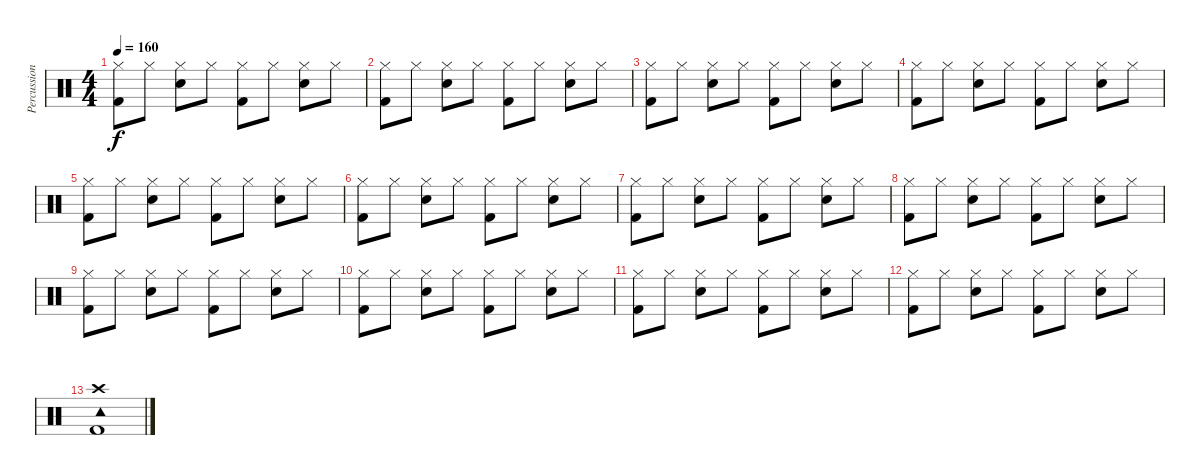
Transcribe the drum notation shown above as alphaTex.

\track ("Percussion" "Percussion") {instrument percussion}
\staff {score}
\articulation defaults
\ts (4 4)
\tempo 160
\clef neutral
\ks c
("Hi-Hat (closed)" "Kick (hit) 2").8{dy f} "Hi-Hat (closed)".8 ("Hi-Hat (closed)" "Snare (hit) 2").8 "Hi-Hat (closed)".8 ("Hi-Hat (closed)" "Kick (hit) 2").8 "Hi-Hat (closed)".8 ("Hi-Hat (closed)" "Snare (hit) 2").8 "Hi-Hat (closed)".8 |
("Hi-Hat (closed)" "Kick (hit) 2").8 "Hi-Hat (closed)".8 ("Hi-Hat (closed)" "Snare (hit) 2").8 "Hi-Hat (closed)".8 ("Hi-Hat (closed)" "Kick (hit) 2").8 "Hi-Hat (closed)".8 ("Hi-Hat (closed)" "Snare (hit) 2").8 "Hi-Hat (closed)".8 |
("Hi-Hat (closed)" "Kick (hit) 2").8 "Hi-Hat (closed)".8 ("Hi-Hat (closed)" "Snare (hit) 2").8 "Hi-Hat (closed)".8 ("Hi-Hat (closed)" "Kick (hit) 2").8 "Hi-Hat (closed)".8 ("Hi-Hat (closed)" "Snare (hit) 2").8 "Hi-Hat (closed)".8 |
("Hi-Hat (closed)" "Kick (hit) 2").8 "Hi-Hat (closed)".8 ("Hi-Hat (closed)" "Snare (hit) 2").8 "Hi-Hat (closed)".8 ("Hi-Hat (closed)" "Kick (hit) 2").8 "Hi-Hat (closed)".8 ("Hi-Hat (closed)" "Snare (hit) 2").8 "Hi-Hat (closed)".8 |
("Hi-Hat (closed)" "Kick (hit) 2").8 "Hi-Hat (closed)".8 ("Hi-Hat (closed)" "Snare (hit) 2").8 "Hi-Hat (closed)".8 ("Hi-Hat (closed)" "Kick (hit) 2").8 "Hi-Hat (closed)".8 ("Hi-Hat (closed)" "Snare (hit) 2").8 "Hi-Hat (closed)".8 |
("Hi-Hat (closed)" "Kick (hit) 2").8 "Hi-Hat (closed)".8 ("Hi-Hat (closed)" "Snare (hit) 2").8 "Hi-Hat (closed)".8 ("Hi-Hat (closed)" "Kick (hit) 2").8 "Hi-Hat (closed)".8 ("Hi-Hat (closed)" "Snare (hit) 2").8 "Hi-Hat (closed)".8 |
("Hi-Hat (closed)" "Kick (hit) 2").8 "Hi-Hat (closed)".8 ("Hi-Hat (closed)" "Snare (hit) 2").8 "Hi-Hat (closed)".8 ("Hi-Hat (closed)" "Kick (hit) 2").8 "Hi-Hat (closed)".8 ("Hi-Hat (closed)" "Snare (hit) 2").8 "Hi-Hat (closed)".8 |
("Hi-Hat (closed)" "Kick (hit) 2").8 "Hi-Hat (closed)".8 ("Hi-Hat (closed)" "Snare (hit) 2").8 "Hi-Hat (closed)".8 ("Hi-Hat (closed)" "Kick (hit) 2").8 "Hi-Hat (closed)".8 ("Hi-Hat (closed)" "Snare (hit) 2").8 "Hi-Hat (closed)".8 |
("Hi-Hat (closed)" "Kick (hit) 2").8 "Hi-Hat (closed)".8 ("Hi-Hat (closed)" "Snare (hit) 2").8 "Hi-Hat (closed)".8 ("Hi-Hat (closed)" "Kick (hit) 2").8 "Hi-Hat (closed)".8 ("Hi-Hat (closed)" "Snare (hit) 2").8 "Hi-Hat (closed)".8 |
("Hi-Hat (closed)" "Kick (hit) 2").8 "Hi-Hat (closed)".8 ("Hi-Hat (closed)" "Snare (hit) 2").8 "Hi-Hat (closed)".8 ("Hi-Hat (closed)" "Kick (hit) 2").8 "Hi-Hat (closed)".8 ("Hi-Hat (closed)" "Snare (hit) 2").8 "Hi-Hat (closed)".8 |
("Hi-Hat (closed)" "Kick (hit) 2").8 "Hi-Hat (closed)".8 ("Hi-Hat (closed)" "Snare (hit) 2").8 "Hi-Hat (closed)".8 ("Hi-Hat (closed)" "Kick (hit) 2").8 "Hi-Hat (closed)".8 ("Hi-Hat (closed)" "Snare (hit) 2").8 "Hi-Hat (closed)".8 |
("Hi-Hat (closed)" "Kick (hit) 2").8 "Hi-Hat (closed)".8 ("Hi-Hat (closed)" "Snare (hit) 2").8 "Hi-Hat (closed)".8 ("Hi-Hat (closed)" "Kick (hit) 2").8 "Hi-Hat (closed)".8 ("Hi-Hat (closed)" "Snare (hit) 2").8 "Hi-Hat (closed)".8 |
("Crash high (hit)" "Tambourine (hit)" "Kick (hit) 2").1
